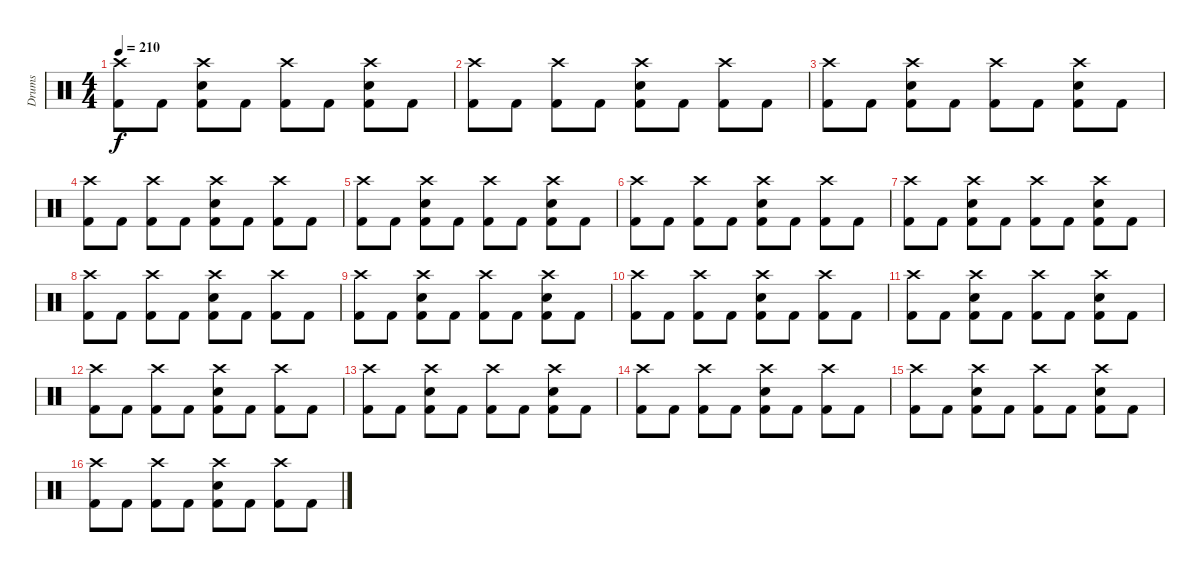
\track ("Drums" "Drums") {instrument percussion}
\staff {score}
\articulation defaults
\ts (4 4)
\tempo 210
\clef neutral
\ks c
("Crash high (hit)" "Kick (hit) 2").8{dy f} "Kick (hit) 2".8 ("Crash high (hit)" "Snare (hit) 2" "Kick (hit) 2").8 "Kick (hit) 2".8 ("Crash high (hit)" "Kick (hit) 2").8 "Kick (hit) 2".8 ("Crash high (hit)" "Snare (hit) 2" "Kick (hit) 2").8 "Kick (hit) 2".8 |
("Crash high (hit)" "Kick (hit) 2").8 "Kick (hit) 2".8 ("Crash high (hit)" "Kick (hit) 2").8 "Kick (hit) 2".8 ("Crash high (hit)" "Snare (hit) 2" "Kick (hit) 2").8 "Kick (hit) 2".8 ("Crash high (hit)" "Kick (hit) 2").8 "Kick (hit) 2".8 |
("Crash high (hit)" "Kick (hit) 2").8 "Kick (hit) 2".8 ("Crash high (hit)" "Snare (hit) 2" "Kick (hit) 2").8 "Kick (hit) 2".8 ("Crash high (hit)" "Kick (hit) 2").8 "Kick (hit) 2".8 ("Crash high (hit)" "Snare (hit) 2" "Kick (hit) 2").8 "Kick (hit) 2".8 |
("Crash high (hit)" "Kick (hit) 2").8 "Kick (hit) 2".8 ("Crash high (hit)" "Kick (hit) 2").8 "Kick (hit) 2".8 ("Crash high (hit)" "Snare (hit) 2" "Kick (hit) 2").8 "Kick (hit) 2".8 ("Crash high (hit)" "Kick (hit) 2").8 "Kick (hit) 2".8 |
("Crash high (hit)" "Kick (hit) 2").8 "Kick (hit) 2".8 ("Crash high (hit)" "Snare (hit) 2" "Kick (hit) 2").8 "Kick (hit) 2".8 ("Crash high (hit)" "Kick (hit) 2").8 "Kick (hit) 2".8 ("Crash high (hit)" "Snare (hit) 2" "Kick (hit) 2").8 "Kick (hit) 2".8 |
("Crash high (hit)" "Kick (hit) 2").8 "Kick (hit) 2".8 ("Crash high (hit)" "Kick (hit) 2").8 "Kick (hit) 2".8 ("Crash high (hit)" "Snare (hit) 2" "Kick (hit) 2").8 "Kick (hit) 2".8 ("Crash high (hit)" "Kick (hit) 2").8 "Kick (hit) 2".8 |
("Crash high (hit)" "Kick (hit) 2").8 "Kick (hit) 2".8 ("Crash high (hit)" "Snare (hit) 2" "Kick (hit) 2").8 "Kick (hit) 2".8 ("Crash high (hit)" "Kick (hit) 2").8 "Kick (hit) 2".8 ("Crash high (hit)" "Snare (hit) 2" "Kick (hit) 2").8 "Kick (hit) 2".8 |
("Crash high (hit)" "Kick (hit) 2").8 "Kick (hit) 2".8 ("Crash high (hit)" "Kick (hit) 2").8 "Kick (hit) 2".8 ("Crash high (hit)" "Snare (hit) 2" "Kick (hit) 2").8 "Kick (hit) 2".8 ("Crash high (hit)" "Kick (hit) 2").8 "Kick (hit) 2".8 |
("Crash high (hit)" "Kick (hit) 2").8 "Kick (hit) 2".8 ("Crash high (hit)" "Snare (hit) 2" "Kick (hit) 2").8 "Kick (hit) 2".8 ("Crash high (hit)" "Kick (hit) 2").8 "Kick (hit) 2".8 ("Crash high (hit)" "Snare (hit) 2" "Kick (hit) 2").8 "Kick (hit) 2".8 |
("Crash high (hit)" "Kick (hit) 2").8 "Kick (hit) 2".8 ("Crash high (hit)" "Kick (hit) 2").8 "Kick (hit) 2".8 ("Crash high (hit)" "Snare (hit) 2" "Kick (hit) 2").8 "Kick (hit) 2".8 ("Crash high (hit)" "Kick (hit) 2").8 "Kick (hit) 2".8 |
("Crash high (hit)" "Kick (hit) 2").8 "Kick (hit) 2".8 ("Crash high (hit)" "Snare (hit) 2" "Kick (hit) 2").8 "Kick (hit) 2".8 ("Crash high (hit)" "Kick (hit) 2").8 "Kick (hit) 2".8 ("Crash high (hit)" "Snare (hit) 2" "Kick (hit) 2").8 "Kick (hit) 2".8 |
("Crash high (hit)" "Kick (hit) 2").8 "Kick (hit) 2".8 ("Crash high (hit)" "Kick (hit) 2").8 "Kick (hit) 2".8 ("Crash high (hit)" "Snare (hit) 2" "Kick (hit) 2").8 "Kick (hit) 2".8 ("Crash high (hit)" "Kick (hit) 2").8 "Kick (hit) 2".8 |
("Crash high (hit)" "Kick (hit) 2").8 "Kick (hit) 2".8 ("Crash high (hit)" "Snare (hit) 2" "Kick (hit) 2").8 "Kick (hit) 2".8 ("Crash high (hit)" "Kick (hit) 2").8 "Kick (hit) 2".8 ("Crash high (hit)" "Snare (hit) 2" "Kick (hit) 2").8 "Kick (hit) 2".8 |
("Crash high (hit)" "Kick (hit) 2").8 "Kick (hit) 2".8 ("Crash high (hit)" "Kick (hit) 2").8 "Kick (hit) 2".8 ("Crash high (hit)" "Snare (hit) 2" "Kick (hit) 2").8 "Kick (hit) 2".8 ("Crash high (hit)" "Kick (hit) 2").8 "Kick (hit) 2".8 |
("Crash high (hit)" "Kick (hit) 2").8 "Kick (hit) 2".8 ("Crash high (hit)" "Snare (hit) 2" "Kick (hit) 2").8 "Kick (hit) 2".8 ("Crash high (hit)" "Kick (hit) 2").8 "Kick (hit) 2".8 ("Crash high (hit)" "Snare (hit) 2" "Kick (hit) 2").8 "Kick (hit) 2".8 |
("Crash high (hit)" "Kick (hit) 2").8 "Kick (hit) 2".8 ("Crash high (hit)" "Kick (hit) 2").8 "Kick (hit) 2".8 ("Crash high (hit)" "Snare (hit) 2" "Kick (hit) 2").8 "Kick (hit) 2".8 ("Crash high (hit)" "Kick (hit) 2").8 "Kick (hit) 2".8
